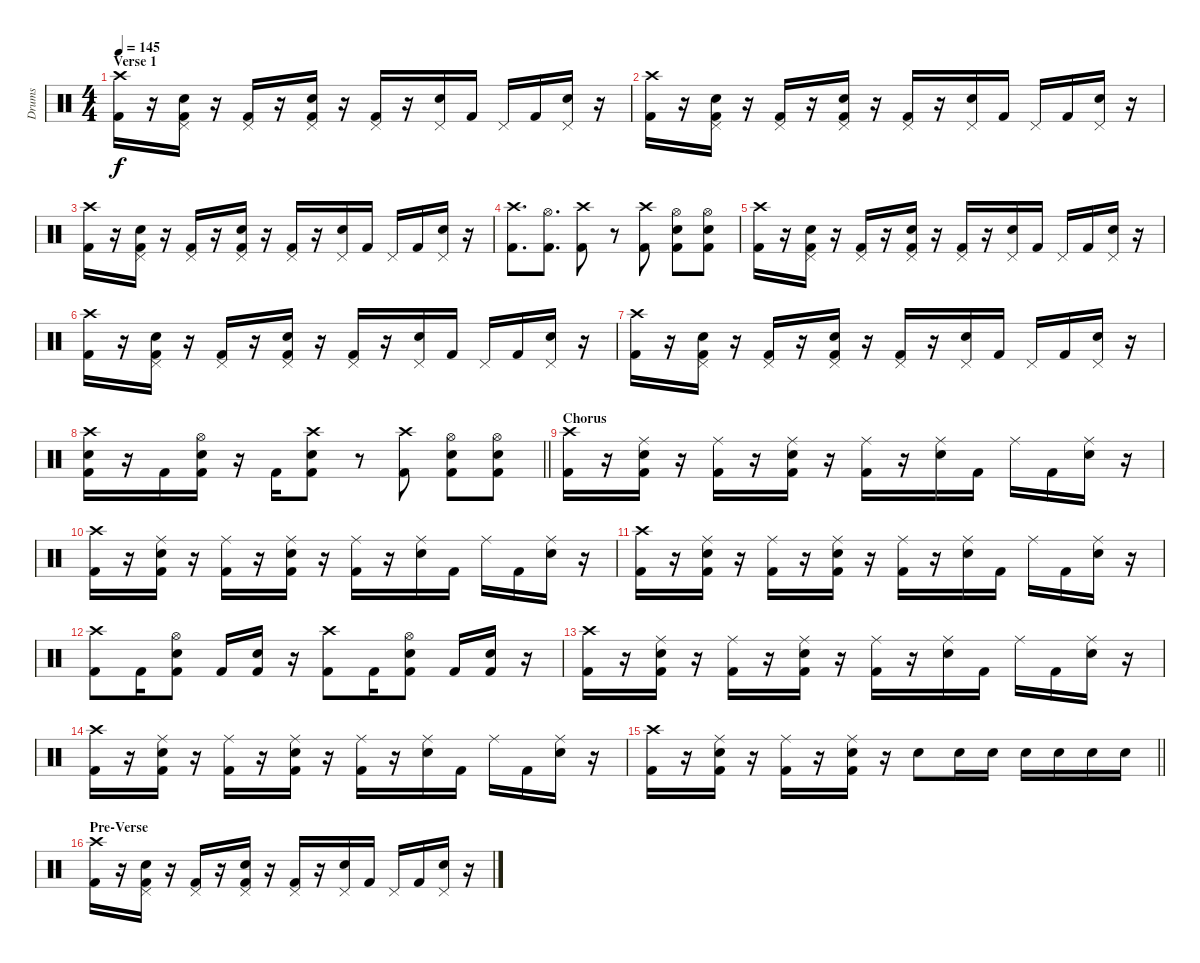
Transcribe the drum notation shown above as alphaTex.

\track ("Drums" "Drums") {instrument percussion}
\staff {score}
\articulation defaults
\ts (4 4)
\section ("" "Verse 1")
\tempo 145
\clef neutral
\ks c
("Crash high (hit)" "Kick (hit) 2").16{dy f} r.16 ("Pedal Hi-Hat (hit)" "Snare (hit) 2" "Kick (hit) 2").16 r.16 ("Pedal Hi-Hat (hit)" "Kick (hit) 2").16 r.16 ("Pedal Hi-Hat (hit)" "Snare (hit) 2" "Kick (hit) 2").16 r.16 ("Pedal Hi-Hat (hit)" "Kick (hit) 2").16 r.16 ("Pedal Hi-Hat (hit)" "Snare (hit) 2").16 "Kick (hit) 2".16 "Pedal Hi-Hat (hit)".16 "Kick (hit) 2".16 ("Pedal Hi-Hat (hit)" "Snare (hit) 2").16 r.16 |
("Crash high (hit)" "Kick (hit) 2").16 r.16 ("Pedal Hi-Hat (hit)" "Snare (hit) 2" "Kick (hit) 2").16 r.16 ("Pedal Hi-Hat (hit)" "Kick (hit) 2").16 r.16 ("Pedal Hi-Hat (hit)" "Snare (hit) 2" "Kick (hit) 2").16 r.16 ("Pedal Hi-Hat (hit)" "Kick (hit) 2").16 r.16 ("Pedal Hi-Hat (hit)" "Snare (hit) 2").16 "Kick (hit) 2".16 "Pedal Hi-Hat (hit)".16 "Kick (hit) 2".16 ("Pedal Hi-Hat (hit)" "Snare (hit) 2").16 r.16 |
("Crash high (hit)" "Kick (hit) 2").16 r.16 ("Pedal Hi-Hat (hit)" "Snare (hit) 2" "Kick (hit) 2").16 r.16 ("Pedal Hi-Hat (hit)" "Kick (hit) 2").16 r.16 ("Pedal Hi-Hat (hit)" "Snare (hit) 2" "Kick (hit) 2").16 r.16 ("Pedal Hi-Hat (hit)" "Kick (hit) 2").16 r.16 ("Pedal Hi-Hat (hit)" "Snare (hit) 2").16 "Kick (hit) 2".16 "Pedal Hi-Hat (hit)".16 "Kick (hit) 2".16 ("Pedal Hi-Hat (hit)" "Snare (hit) 2").16 r.16 |
("Crash high (hit)" "Kick (hit) 2").8{d} ("Hi-Hat (open)" "Kick (hit) 2").8{d} ("Crash high (hit)" "Kick (hit) 2").8 r.8 ("Crash high (hit)" "Kick (hit) 2").8 ("Hi-Hat (open)" "Snare (hit) 2" "Kick (hit) 2").8 ("Hi-Hat (open)" "Snare (hit) 2" "Kick (hit) 2").8 |
("Crash high (hit)" "Kick (hit) 2").16 r.16 ("Pedal Hi-Hat (hit)" "Snare (hit) 2" "Kick (hit) 2").16 r.16 ("Pedal Hi-Hat (hit)" "Kick (hit) 2").16 r.16 ("Pedal Hi-Hat (hit)" "Snare (hit) 2" "Kick (hit) 2").16 r.16 ("Pedal Hi-Hat (hit)" "Kick (hit) 2").16 r.16 ("Pedal Hi-Hat (hit)" "Snare (hit) 2").16 "Kick (hit) 2".16 "Pedal Hi-Hat (hit)".16 "Kick (hit) 2".16 ("Pedal Hi-Hat (hit)" "Snare (hit) 2").16 r.16 |
("Crash high (hit)" "Kick (hit) 2").16 r.16 ("Pedal Hi-Hat (hit)" "Snare (hit) 2" "Kick (hit) 2").16 r.16 ("Pedal Hi-Hat (hit)" "Kick (hit) 2").16 r.16 ("Pedal Hi-Hat (hit)" "Snare (hit) 2" "Kick (hit) 2").16 r.16 ("Pedal Hi-Hat (hit)" "Kick (hit) 2").16 r.16 ("Pedal Hi-Hat (hit)" "Snare (hit) 2").16 "Kick (hit) 2".16 "Pedal Hi-Hat (hit)".16 "Kick (hit) 2".16 ("Pedal Hi-Hat (hit)" "Snare (hit) 2").16 r.16 |
("Crash high (hit)" "Kick (hit) 2").16 r.16 ("Pedal Hi-Hat (hit)" "Snare (hit) 2" "Kick (hit) 2").16 r.16 ("Pedal Hi-Hat (hit)" "Kick (hit) 2").16 r.16 ("Pedal Hi-Hat (hit)" "Snare (hit) 2" "Kick (hit) 2").16 r.16 ("Pedal Hi-Hat (hit)" "Kick (hit) 2").16 r.16 ("Pedal Hi-Hat (hit)" "Snare (hit) 2").16 "Kick (hit) 2".16 "Pedal Hi-Hat (hit)".16 "Kick (hit) 2".16 ("Pedal Hi-Hat (hit)" "Snare (hit) 2").16 r.16 |
\barLineRight lightlight
("Crash high (hit)" "Snare (hit) 2" "Kick (hit) 2").16 r.16 "Kick (hit) 2".16 ("Hi-Hat (open)" "Snare (hit) 2" "Kick (hit) 2").16 r.16 "Kick (hit) 2".16 ("Crash high (hit)" "Snare (hit) 2" "Kick (hit) 2").8 r.8 ("Crash high (hit)" "Kick (hit) 2").8 ("Hi-Hat (open)" "Snare (hit) 2" "Kick (hit) 2").8 ("Hi-Hat (open)" "Snare (hit) 2" "Kick (hit) 2").8 |
\section ("" "Chorus")
("Crash high (hit)" "Kick (hit) 2").16 r.16 ("Ride (middle)" "Snare (hit) 2" "Kick (hit) 2").16 r.16 ("Ride (middle)" "Kick (hit) 2").16 r.16 ("Ride (middle)" "Snare (hit) 2" "Kick (hit) 2").16 r.16 ("Ride (middle)" "Kick (hit) 2").16 r.16 ("Ride (middle)" "Snare (hit) 2").16 "Kick (hit) 2".16 "Ride (middle)".16 "Kick (hit) 2".16 ("Ride (middle)" "Snare (hit) 2").16 r.16 |
("Crash high (hit)" "Kick (hit) 2").16 r.16 ("Ride (middle)" "Snare (hit) 2" "Kick (hit) 2").16 r.16 ("Ride (middle)" "Kick (hit) 2").16 r.16 ("Ride (middle)" "Snare (hit) 2" "Kick (hit) 2").16 r.16 ("Ride (middle)" "Kick (hit) 2").16 r.16 ("Ride (middle)" "Snare (hit) 2").16 "Kick (hit) 2".16 "Ride (middle)".16 "Kick (hit) 2".16 ("Ride (middle)" "Snare (hit) 2").16 r.16 |
("Crash high (hit)" "Kick (hit) 2").16 r.16 ("Ride (middle)" "Snare (hit) 2" "Kick (hit) 2").16 r.16 ("Ride (middle)" "Kick (hit) 2").16 r.16 ("Ride (middle)" "Snare (hit) 2" "Kick (hit) 2").16 r.16 ("Ride (middle)" "Kick (hit) 2").16 r.16 ("Ride (middle)" "Snare (hit) 2").16 "Kick (hit) 2".16 "Ride (middle)".16 "Kick (hit) 2".16 ("Ride (middle)" "Snare (hit) 2").16 r.16 |
("Crash high (hit)" "Kick (hit) 2").8 "Kick (hit) 2".16 ("Hi-Hat (open)" "Snare (hit) 2" "Kick (hit) 2").8 "Kick (hit) 2".16 ("Snare (hit) 2" "Kick (hit) 2").16 r.16 ("Crash high (hit)" "Kick (hit) 2").8 "Kick (hit) 2".16 ("Hi-Hat (open)" "Snare (hit) 2" "Kick (hit) 2").8 "Kick (hit) 2".16 ("Snare (hit) 2" "Kick (hit) 2").16 r.16 |
("Crash high (hit)" "Kick (hit) 2").16 r.16 ("Ride (middle)" "Snare (hit) 2" "Kick (hit) 2").16 r.16 ("Ride (middle)" "Kick (hit) 2").16 r.16 ("Ride (middle)" "Snare (hit) 2" "Kick (hit) 2").16 r.16 ("Ride (middle)" "Kick (hit) 2").16 r.16 ("Ride (middle)" "Snare (hit) 2").16 "Kick (hit) 2".16 "Ride (middle)".16 "Kick (hit) 2".16 ("Ride (middle)" "Snare (hit) 2").16 r.16 |
("Crash high (hit)" "Kick (hit) 2").16 r.16 ("Ride (middle)" "Snare (hit) 2" "Kick (hit) 2").16 r.16 ("Ride (middle)" "Kick (hit) 2").16 r.16 ("Ride (middle)" "Snare (hit) 2" "Kick (hit) 2").16 r.16 ("Ride (middle)" "Kick (hit) 2").16 r.16 ("Ride (middle)" "Snare (hit) 2").16 "Kick (hit) 2".16 "Ride (middle)".16 "Kick (hit) 2".16 ("Ride (middle)" "Snare (hit) 2").16 r.16 |
\barLineRight lightlight
("Crash high (hit)" "Kick (hit) 2").16 r.16 ("Ride (middle)" "Snare (hit) 2" "Kick (hit) 2").16 r.16 ("Ride (middle)" "Kick (hit) 2").16 r.16 ("Ride (middle)" "Snare (hit) 2" "Kick (hit) 2").16 r.16 "Snare (hit) 2".8 "Snare (hit) 2".16 "Snare (hit) 2".16 "Snare (hit) 2".16 "Snare (hit) 2".16 "Snare (hit) 2".16 "Snare (hit) 2".16 |
\section ("" "Pre-Verse")
("Crash high (hit)" "Kick (hit) 2").16 r.16 ("Pedal Hi-Hat (hit)" "Snare (hit) 2" "Kick (hit) 2").16 r.16 ("Pedal Hi-Hat (hit)" "Kick (hit) 2").16 r.16 ("Pedal Hi-Hat (hit)" "Snare (hit) 2" "Kick (hit) 2").16 r.16 ("Pedal Hi-Hat (hit)" "Kick (hit) 2").16 r.16 ("Pedal Hi-Hat (hit)" "Snare (hit) 2").16 "Kick (hit) 2".16 "Pedal Hi-Hat (hit)".16 "Kick (hit) 2".16 ("Pedal Hi-Hat (hit)" "Snare (hit) 2").16 r.16
